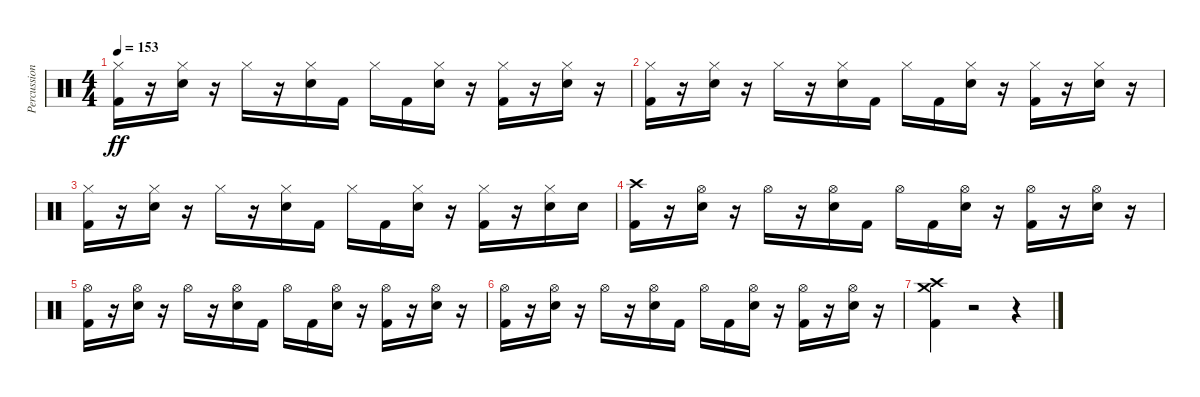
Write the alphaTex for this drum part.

\track ("Percussion" "Percussion") {instrument percussion}
\staff {score}
\articulation defaults
\ts (4 4)
\tempo 153
\clef neutral
\ks c
("Hi-Hat (closed)" "Kick (hit) 2").16{dy ff} r.16 ("Hi-Hat (closed)" "Snare (hit) 2").16 r.16 "Hi-Hat (closed)".16 r.16 ("Hi-Hat (closed)" "Snare (hit) 2").16 "Kick (hit) 2".16 "Hi-Hat (closed)".16 "Kick (hit) 2".16 ("Hi-Hat (closed)" "Snare (hit) 2").16 r.16 ("Hi-Hat (closed)" "Kick (hit) 2").16 r.16 ("Hi-Hat (closed)" "Snare (hit) 2").16 r.16 |
("Hi-Hat (closed)" "Kick (hit) 2").16 r.16 ("Snare (hit) 2" "Hi-Hat (closed)").16 r.16 "Hi-Hat (closed)".16 r.16 ("Hi-Hat (closed)" "Snare (hit) 2").16 "Kick (hit) 2".16 "Hi-Hat (closed)".16 "Kick (hit) 2".16 ("Snare (hit) 2" "Hi-Hat (closed)").16 r.16 ("Kick (hit) 2" "Hi-Hat (closed)").16 r.16 ("Snare (hit) 2" "Hi-Hat (closed)").16 r.16 |
("Kick (hit) 2" "Hi-Hat (closed)").16 r.16 ("Snare (hit) 2" "Hi-Hat (closed)").16 r.16 "Hi-Hat (closed)".16 r.16 ("Hi-Hat (closed)" "Snare (hit) 2").16 "Kick (hit) 2".16 "Hi-Hat (closed)".16 "Kick (hit) 2".16 ("Snare (hit) 2" "Hi-Hat (closed)").16 r.16 ("Kick (hit) 2" "Hi-Hat (closed)").16 r.16 ("Hi-Hat (closed)" "Snare (hit) 2").16 "Snare (hit) 2".16 |
("Crash high (hit)" "Kick (hit) 2").16 r.16 ("Hi-Hat (open)" "Snare (hit) 2").16 r.16 "Hi-Hat (open)".16 r.16 ("Hi-Hat (open)" "Snare (hit) 2").16 "Kick (hit) 2".16 "Hi-Hat (open)".16 "Kick (hit) 2".16 ("Hi-Hat (open)" "Snare (hit) 2").16 r.16 ("Hi-Hat (open)" "Kick (hit) 2").16 r.16 ("Hi-Hat (open)" "Snare (hit) 2").16 r.16 |
("Hi-Hat (open)" "Kick (hit) 2").16 r.16 ("Hi-Hat (open)" "Snare (hit) 2").16 r.16 "Hi-Hat (open)".16 r.16 ("Hi-Hat (open)" "Snare (hit) 2").16 "Kick (hit) 2".16 "Hi-Hat (open)".16 "Kick (hit) 2".16 ("Hi-Hat (open)" "Snare (hit) 2").16 r.16 ("Hi-Hat (open)" "Kick (hit) 2").16 r.16 ("Hi-Hat (open)" "Snare (hit) 2").16 r.16 |
("Kick (hit) 2" "Hi-Hat (open)").16 r.16 ("Snare (hit) 2" "Hi-Hat (open)").16 r.16 "Hi-Hat (open)".16 r.16 ("Hi-Hat (open)" "Snare (hit) 2").16 "Kick (hit) 2".16 "Hi-Hat (open)".16 "Kick (hit) 2".16 ("Snare (hit) 2" "Hi-Hat (open)").16 r.16 ("Kick (hit) 2" "Hi-Hat (open)").16 r.16 ("Snare (hit) 2" "Hi-Hat (open)").16 r.16 |
("Crash medium (hit)" "Crash high (hit)" "Kick (hit) 2").4 r.2 r.4
